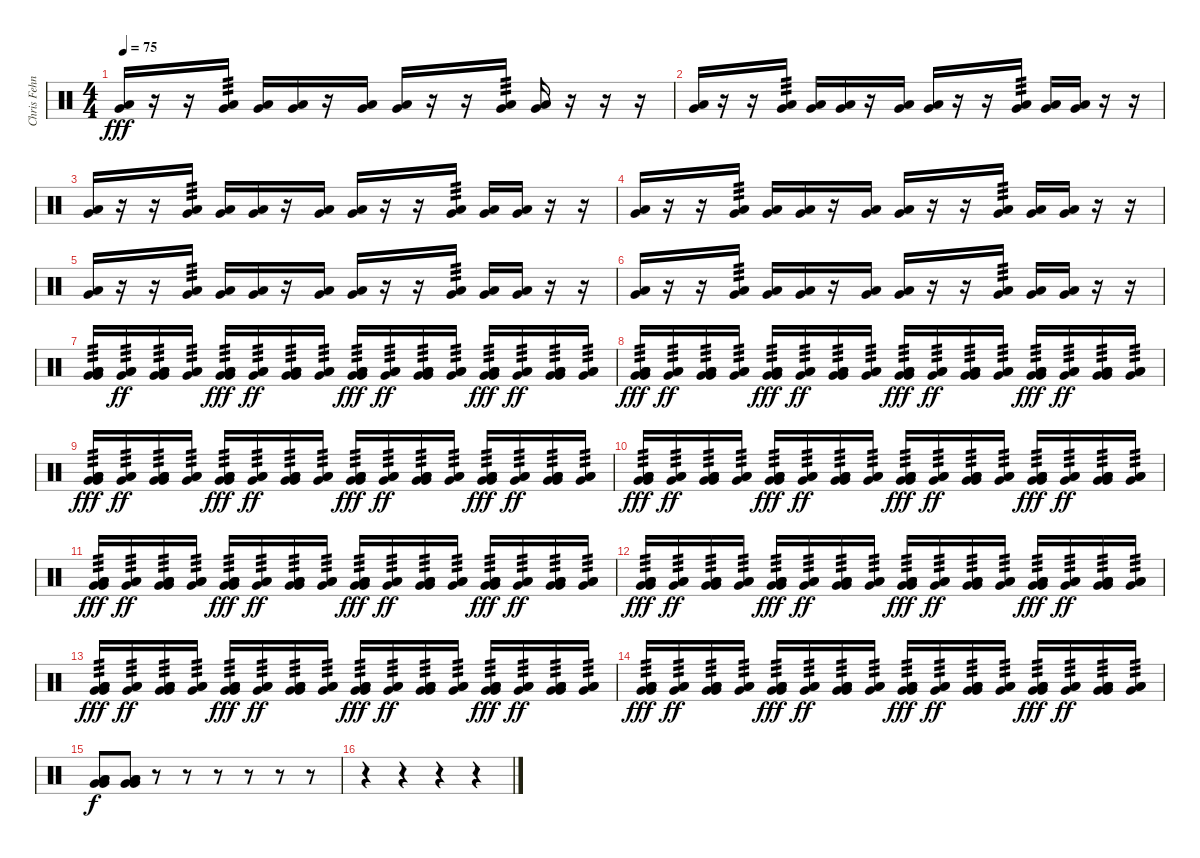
\track ("Chris Fehn" "Chris Fehn") {instrument percussion}
\staff {score}
\articulation defaults
\ts (4 4)
\tempo 75
\clef neutral
\ks c
("Very Low Tom (hit)" "Low Floor Tom (hit)").16{dy fff} r.16 r.16 ("Very Low Tom (hit)" "Low Floor Tom (hit)").16{tp 3} ("Very Low Tom (hit)" "Low Floor Tom (hit)").16 ("Very Low Tom (hit)" "Low Floor Tom (hit)").16 r.16 ("Very Low Tom (hit)" "Low Floor Tom (hit)").16 ("Very Low Tom (hit)" "Low Floor Tom (hit)").16 r.16 r.16 ("Very Low Tom (hit)" "Low Floor Tom (hit)").16{tp 3} ("Very Low Tom (hit)" "Low Floor Tom (hit)").16 r.16 r.16 r.16 |
("Very Low Tom (hit)" "Low Floor Tom (hit)").16 r.16 r.16 ("Very Low Tom (hit)" "Low Floor Tom (hit)").16{tp 3} ("Very Low Tom (hit)" "Low Floor Tom (hit)").16 ("Very Low Tom (hit)" "Low Floor Tom (hit)").16 r.16 ("Very Low Tom (hit)" "Low Floor Tom (hit)").16 ("Very Low Tom (hit)" "Low Floor Tom (hit)").16 r.16 r.16 ("Very Low Tom (hit)" "Low Floor Tom (hit)").16{tp 3} ("Very Low Tom (hit)" "Low Floor Tom (hit)").16 ("Very Low Tom (hit)" "Low Floor Tom (hit)").16 r.16 r.16 |
("Very Low Tom (hit)" "Low Floor Tom (hit)").16 r.16 r.16 ("Very Low Tom (hit)" "Low Floor Tom (hit)").16{tp 3} ("Very Low Tom (hit)" "Low Floor Tom (hit)").16 ("Very Low Tom (hit)" "Low Floor Tom (hit)").16 r.16 ("Very Low Tom (hit)" "Low Floor Tom (hit)").16 ("Very Low Tom (hit)" "Low Floor Tom (hit)").16 r.16 r.16 ("Very Low Tom (hit)" "Low Floor Tom (hit)").16{tp 3} ("Very Low Tom (hit)" "Low Floor Tom (hit)").16 ("Very Low Tom (hit)" "Low Floor Tom (hit)").16 r.16 r.16 |
("Very Low Tom (hit)" "Low Floor Tom (hit)").16 r.16 r.16 ("Very Low Tom (hit)" "Low Floor Tom (hit)").16{tp 3} ("Very Low Tom (hit)" "Low Floor Tom (hit)").16 ("Very Low Tom (hit)" "Low Floor Tom (hit)").16 r.16 ("Very Low Tom (hit)" "Low Floor Tom (hit)").16 ("Very Low Tom (hit)" "Low Floor Tom (hit)").16 r.16 r.16 ("Very Low Tom (hit)" "Low Floor Tom (hit)").16{tp 3} ("Very Low Tom (hit)" "Low Floor Tom (hit)").16 ("Very Low Tom (hit)" "Low Floor Tom (hit)").16 r.16 r.16 |
("Very Low Tom (hit)" "Low Floor Tom (hit)").16 r.16 r.16 ("Very Low Tom (hit)" "Low Floor Tom (hit)").16{tp 3} ("Very Low Tom (hit)" "Low Floor Tom (hit)").16 ("Very Low Tom (hit)" "Low Floor Tom (hit)").16 r.16 ("Very Low Tom (hit)" "Low Floor Tom (hit)").16 ("Very Low Tom (hit)" "Low Floor Tom (hit)").16 r.16 r.16 ("Very Low Tom (hit)" "Low Floor Tom (hit)").16{tp 3} ("Very Low Tom (hit)" "Low Floor Tom (hit)").16 ("Very Low Tom (hit)" "Low Floor Tom (hit)").16 r.16 r.16 |
("Very Low Tom (hit)" "Low Floor Tom (hit)").16 r.16 r.16 ("Very Low Tom (hit)" "Low Floor Tom (hit)").16{tp 3} ("Very Low Tom (hit)" "Low Floor Tom (hit)").16 ("Very Low Tom (hit)" "Low Floor Tom (hit)").16 r.16 ("Very Low Tom (hit)" "Low Floor Tom (hit)").16 ("Very Low Tom (hit)" "Low Floor Tom (hit)").16 r.16 r.16 ("Very Low Tom (hit)" "Low Floor Tom (hit)").16{tp 3} ("Very Low Tom (hit)" "Low Floor Tom (hit)").16 ("Very Low Tom (hit)" "Low Floor Tom (hit)").16 r.16 r.16 |
("Very Low Tom (hit)" "Low Floor Tom (hit)" "Low Floor Tom (hit)" "Very Low Tom (hit)" "Low Floor Tom (hit)").16{tp 3} ("Very Low Tom (hit)" "Low Floor Tom (hit)" "Low Floor Tom (hit)").16{tp 3 dy ff} ("Very Low Tom (hit)" "Low Floor Tom (hit)" "Low Floor Tom (hit)" "Very Low Tom (hit)" "Low Floor Tom (hit)").16{tp 3} ("Very Low Tom (hit)" "Low Floor Tom (hit)" "Low Floor Tom (hit)").16{tp 3} ("Very Low Tom (hit)" "Low Floor Tom (hit)" "Low Floor Tom (hit)" "Very Low Tom (hit)" "Low Floor Tom (hit)").16{tp 3 dy fff} ("Very Low Tom (hit)" "Low Floor Tom (hit)" "Low Floor Tom (hit)").16{tp 3 dy ff} ("Very Low Tom (hit)" "Low Floor Tom (hit)" "Low Floor Tom (hit)" "Very Low Tom (hit)" "Low Floor Tom (hit)").16{tp 3} ("Very Low Tom (hit)" "Low Floor Tom (hit)" "Low Floor Tom (hit)").16{tp 3} ("Very Low Tom (hit)" "Low Floor Tom (hit)" "Low Floor Tom (hit)" "Very Low Tom (hit)" "Low Floor Tom (hit)").16{tp 3 dy fff} ("Very Low Tom (hit)" "Low Floor Tom (hit)" "Low Floor Tom (hit)").16{tp 3 dy ff} ("Very Low Tom (hit)" "Low Floor Tom (hit)" "Low Floor Tom (hit)" "Very Low Tom (hit)" "Low Floor Tom (hit)").16{tp 3} ("Very Low Tom (hit)" "Low Floor Tom (hit)" "Low Floor Tom (hit)").16{tp 3} ("Very Low Tom (hit)" "Low Floor Tom (hit)" "Low Floor Tom (hit)" "Very Low Tom (hit)" "Low Floor Tom (hit)").16{tp 3 dy fff} ("Very Low Tom (hit)" "Low Floor Tom (hit)" "Low Floor Tom (hit)").16{tp 3 dy ff} ("Very Low Tom (hit)" "Low Floor Tom (hit)" "Low Floor Tom (hit)" "Very Low Tom (hit)" "Low Floor Tom (hit)").16{tp 3} ("Very Low Tom (hit)" "Low Floor Tom (hit)" "Low Floor Tom (hit)").16{tp 3} |
("Very Low Tom (hit)" "Low Floor Tom (hit)" "Low Floor Tom (hit)" "Very Low Tom (hit)" "Low Floor Tom (hit)").16{tp 3 dy fff} ("Very Low Tom (hit)" "Low Floor Tom (hit)" "Low Floor Tom (hit)").16{tp 3 dy ff} ("Very Low Tom (hit)" "Low Floor Tom (hit)" "Low Floor Tom (hit)" "Very Low Tom (hit)" "Low Floor Tom (hit)").16{tp 3} ("Very Low Tom (hit)" "Low Floor Tom (hit)" "Low Floor Tom (hit)").16{tp 3} ("Very Low Tom (hit)" "Low Floor Tom (hit)" "Low Floor Tom (hit)" "Very Low Tom (hit)" "Low Floor Tom (hit)").16{tp 3 dy fff} ("Very Low Tom (hit)" "Low Floor Tom (hit)" "Low Floor Tom (hit)").16{tp 3 dy ff} ("Very Low Tom (hit)" "Low Floor Tom (hit)" "Low Floor Tom (hit)" "Very Low Tom (hit)" "Low Floor Tom (hit)").16{tp 3} ("Very Low Tom (hit)" "Low Floor Tom (hit)" "Low Floor Tom (hit)").16{tp 3} ("Very Low Tom (hit)" "Low Floor Tom (hit)" "Low Floor Tom (hit)" "Very Low Tom (hit)" "Low Floor Tom (hit)").16{tp 3 dy fff} ("Very Low Tom (hit)" "Low Floor Tom (hit)" "Low Floor Tom (hit)").16{tp 3 dy ff} ("Very Low Tom (hit)" "Low Floor Tom (hit)" "Low Floor Tom (hit)" "Very Low Tom (hit)" "Low Floor Tom (hit)").16{tp 3} ("Very Low Tom (hit)" "Low Floor Tom (hit)" "Low Floor Tom (hit)").16{tp 3} ("Very Low Tom (hit)" "Low Floor Tom (hit)" "Low Floor Tom (hit)" "Very Low Tom (hit)" "Low Floor Tom (hit)").16{tp 3 dy fff} ("Very Low Tom (hit)" "Low Floor Tom (hit)" "Low Floor Tom (hit)").16{tp 3 dy ff} ("Very Low Tom (hit)" "Low Floor Tom (hit)" "Low Floor Tom (hit)" "Very Low Tom (hit)" "Low Floor Tom (hit)").16{tp 3} ("Very Low Tom (hit)" "Low Floor Tom (hit)" "Low Floor Tom (hit)").16{tp 3} |
("Very Low Tom (hit)" "Low Floor Tom (hit)" "Low Floor Tom (hit)" "Very Low Tom (hit)" "Low Floor Tom (hit)").16{tp 3 dy fff} ("Very Low Tom (hit)" "Low Floor Tom (hit)" "Low Floor Tom (hit)").16{tp 3 dy ff} ("Very Low Tom (hit)" "Low Floor Tom (hit)" "Low Floor Tom (hit)" "Very Low Tom (hit)" "Low Floor Tom (hit)").16{tp 3} ("Very Low Tom (hit)" "Low Floor Tom (hit)" "Low Floor Tom (hit)").16{tp 3} ("Very Low Tom (hit)" "Low Floor Tom (hit)" "Low Floor Tom (hit)" "Very Low Tom (hit)" "Low Floor Tom (hit)").16{tp 3 dy fff} ("Very Low Tom (hit)" "Low Floor Tom (hit)" "Low Floor Tom (hit)").16{tp 3 dy ff} ("Very Low Tom (hit)" "Low Floor Tom (hit)" "Low Floor Tom (hit)" "Very Low Tom (hit)" "Low Floor Tom (hit)").16{tp 3} ("Very Low Tom (hit)" "Low Floor Tom (hit)" "Low Floor Tom (hit)").16{tp 3} ("Very Low Tom (hit)" "Low Floor Tom (hit)" "Low Floor Tom (hit)" "Very Low Tom (hit)" "Low Floor Tom (hit)").16{tp 3 dy fff} ("Very Low Tom (hit)" "Low Floor Tom (hit)" "Low Floor Tom (hit)").16{tp 3 dy ff} ("Very Low Tom (hit)" "Low Floor Tom (hit)" "Low Floor Tom (hit)" "Very Low Tom (hit)" "Low Floor Tom (hit)").16{tp 3} ("Very Low Tom (hit)" "Low Floor Tom (hit)" "Low Floor Tom (hit)").16{tp 3} ("Very Low Tom (hit)" "Low Floor Tom (hit)" "Low Floor Tom (hit)" "Very Low Tom (hit)" "Low Floor Tom (hit)").16{tp 3 dy fff} ("Very Low Tom (hit)" "Low Floor Tom (hit)" "Low Floor Tom (hit)").16{tp 3 dy ff} ("Very Low Tom (hit)" "Low Floor Tom (hit)" "Low Floor Tom (hit)" "Very Low Tom (hit)" "Low Floor Tom (hit)").16{tp 3} ("Very Low Tom (hit)" "Low Floor Tom (hit)" "Low Floor Tom (hit)").16{tp 3} |
("Very Low Tom (hit)" "Low Floor Tom (hit)" "Low Floor Tom (hit)" "Very Low Tom (hit)" "Low Floor Tom (hit)").16{tp 3 dy fff} ("Very Low Tom (hit)" "Low Floor Tom (hit)" "Low Floor Tom (hit)").16{tp 3 dy ff} ("Very Low Tom (hit)" "Low Floor Tom (hit)" "Low Floor Tom (hit)" "Very Low Tom (hit)" "Low Floor Tom (hit)").16{tp 3} ("Very Low Tom (hit)" "Low Floor Tom (hit)" "Low Floor Tom (hit)").16{tp 3} ("Very Low Tom (hit)" "Low Floor Tom (hit)" "Low Floor Tom (hit)" "Very Low Tom (hit)" "Low Floor Tom (hit)").16{tp 3 dy fff} ("Very Low Tom (hit)" "Low Floor Tom (hit)" "Low Floor Tom (hit)").16{tp 3 dy ff} ("Very Low Tom (hit)" "Low Floor Tom (hit)" "Low Floor Tom (hit)" "Very Low Tom (hit)" "Low Floor Tom (hit)").16{tp 3} ("Very Low Tom (hit)" "Low Floor Tom (hit)" "Low Floor Tom (hit)").16{tp 3} ("Very Low Tom (hit)" "Low Floor Tom (hit)" "Low Floor Tom (hit)" "Very Low Tom (hit)" "Low Floor Tom (hit)").16{tp 3 dy fff} ("Very Low Tom (hit)" "Low Floor Tom (hit)" "Low Floor Tom (hit)").16{tp 3 dy ff} ("Very Low Tom (hit)" "Low Floor Tom (hit)" "Low Floor Tom (hit)" "Very Low Tom (hit)" "Low Floor Tom (hit)").16{tp 3} ("Very Low Tom (hit)" "Low Floor Tom (hit)" "Low Floor Tom (hit)").16{tp 3} ("Very Low Tom (hit)" "Low Floor Tom (hit)" "Low Floor Tom (hit)" "Very Low Tom (hit)" "Low Floor Tom (hit)").16{tp 3 dy fff} ("Very Low Tom (hit)" "Low Floor Tom (hit)" "Low Floor Tom (hit)").16{tp 3 dy ff} ("Very Low Tom (hit)" "Low Floor Tom (hit)" "Low Floor Tom (hit)" "Very Low Tom (hit)" "Low Floor Tom (hit)").16{tp 3} ("Very Low Tom (hit)" "Low Floor Tom (hit)" "Low Floor Tom (hit)").16{tp 3} |
("Very Low Tom (hit)" "Low Floor Tom (hit)" "Low Floor Tom (hit)" "Very Low Tom (hit)" "Low Floor Tom (hit)").16{tp 3 dy fff} ("Very Low Tom (hit)" "Low Floor Tom (hit)" "Low Floor Tom (hit)").16{tp 3 dy ff} ("Very Low Tom (hit)" "Low Floor Tom (hit)" "Low Floor Tom (hit)" "Very Low Tom (hit)" "Low Floor Tom (hit)").16{tp 3} ("Very Low Tom (hit)" "Low Floor Tom (hit)" "Low Floor Tom (hit)").16{tp 3} ("Very Low Tom (hit)" "Low Floor Tom (hit)" "Low Floor Tom (hit)" "Very Low Tom (hit)" "Low Floor Tom (hit)").16{tp 3 dy fff} ("Very Low Tom (hit)" "Low Floor Tom (hit)" "Low Floor Tom (hit)").16{tp 3 dy ff} ("Very Low Tom (hit)" "Low Floor Tom (hit)" "Low Floor Tom (hit)" "Very Low Tom (hit)" "Low Floor Tom (hit)").16{tp 3} ("Very Low Tom (hit)" "Low Floor Tom (hit)" "Low Floor Tom (hit)").16{tp 3} ("Very Low Tom (hit)" "Low Floor Tom (hit)" "Low Floor Tom (hit)" "Very Low Tom (hit)" "Low Floor Tom (hit)").16{tp 3 dy fff} ("Very Low Tom (hit)" "Low Floor Tom (hit)" "Low Floor Tom (hit)").16{tp 3 dy ff} ("Very Low Tom (hit)" "Low Floor Tom (hit)" "Low Floor Tom (hit)" "Very Low Tom (hit)" "Low Floor Tom (hit)").16{tp 3} ("Very Low Tom (hit)" "Low Floor Tom (hit)" "Low Floor Tom (hit)").16{tp 3} ("Very Low Tom (hit)" "Low Floor Tom (hit)" "Low Floor Tom (hit)" "Very Low Tom (hit)" "Low Floor Tom (hit)").16{tp 3 dy fff} ("Very Low Tom (hit)" "Low Floor Tom (hit)" "Low Floor Tom (hit)").16{tp 3 dy ff} ("Very Low Tom (hit)" "Low Floor Tom (hit)" "Low Floor Tom (hit)" "Very Low Tom (hit)" "Low Floor Tom (hit)").16{tp 3} ("Very Low Tom (hit)" "Low Floor Tom (hit)" "Low Floor Tom (hit)").16{tp 3} |
("Very Low Tom (hit)" "Low Floor Tom (hit)" "Low Floor Tom (hit)" "Very Low Tom (hit)" "Low Floor Tom (hit)").16{tp 3 dy fff} ("Very Low Tom (hit)" "Low Floor Tom (hit)" "Low Floor Tom (hit)").16{tp 3 dy ff} ("Very Low Tom (hit)" "Low Floor Tom (hit)" "Low Floor Tom (hit)" "Very Low Tom (hit)" "Low Floor Tom (hit)").16{tp 3} ("Very Low Tom (hit)" "Low Floor Tom (hit)" "Low Floor Tom (hit)").16{tp 3} ("Very Low Tom (hit)" "Low Floor Tom (hit)" "Low Floor Tom (hit)" "Very Low Tom (hit)" "Low Floor Tom (hit)").16{tp 3 dy fff} ("Very Low Tom (hit)" "Low Floor Tom (hit)" "Low Floor Tom (hit)").16{tp 3 dy ff} ("Very Low Tom (hit)" "Low Floor Tom (hit)" "Low Floor Tom (hit)" "Very Low Tom (hit)" "Low Floor Tom (hit)").16{tp 3} ("Very Low Tom (hit)" "Low Floor Tom (hit)" "Low Floor Tom (hit)").16{tp 3} ("Very Low Tom (hit)" "Low Floor Tom (hit)" "Low Floor Tom (hit)" "Very Low Tom (hit)" "Low Floor Tom (hit)").16{tp 3 dy fff} ("Very Low Tom (hit)" "Low Floor Tom (hit)" "Low Floor Tom (hit)").16{tp 3 dy ff} ("Very Low Tom (hit)" "Low Floor Tom (hit)" "Low Floor Tom (hit)" "Very Low Tom (hit)" "Low Floor Tom (hit)").16{tp 3} ("Very Low Tom (hit)" "Low Floor Tom (hit)" "Low Floor Tom (hit)").16{tp 3} ("Very Low Tom (hit)" "Low Floor Tom (hit)" "Low Floor Tom (hit)" "Very Low Tom (hit)" "Low Floor Tom (hit)").16{tp 3 dy fff} ("Very Low Tom (hit)" "Low Floor Tom (hit)" "Low Floor Tom (hit)").16{tp 3 dy ff} ("Very Low Tom (hit)" "Low Floor Tom (hit)" "Low Floor Tom (hit)" "Very Low Tom (hit)" "Low Floor Tom (hit)").16{tp 3} ("Very Low Tom (hit)" "Low Floor Tom (hit)" "Low Floor Tom (hit)").16{tp 3} |
("Very Low Tom (hit)" "Low Floor Tom (hit)" "Low Floor Tom (hit)" "Very Low Tom (hit)" "Low Floor Tom (hit)").16{tp 3 dy fff} ("Very Low Tom (hit)" "Low Floor Tom (hit)" "Low Floor Tom (hit)").16{tp 3 dy ff} ("Very Low Tom (hit)" "Low Floor Tom (hit)" "Low Floor Tom (hit)" "Very Low Tom (hit)" "Low Floor Tom (hit)").16{tp 3} ("Very Low Tom (hit)" "Low Floor Tom (hit)" "Low Floor Tom (hit)").16{tp 3} ("Very Low Tom (hit)" "Low Floor Tom (hit)" "Low Floor Tom (hit)" "Very Low Tom (hit)" "Low Floor Tom (hit)").16{tp 3 dy fff} ("Very Low Tom (hit)" "Low Floor Tom (hit)" "Low Floor Tom (hit)").16{tp 3 dy ff} ("Very Low Tom (hit)" "Low Floor Tom (hit)" "Low Floor Tom (hit)" "Very Low Tom (hit)" "Low Floor Tom (hit)").16{tp 3} ("Very Low Tom (hit)" "Low Floor Tom (hit)" "Low Floor Tom (hit)").16{tp 3} ("Very Low Tom (hit)" "Low Floor Tom (hit)" "Low Floor Tom (hit)" "Very Low Tom (hit)" "Low Floor Tom (hit)").16{tp 3 dy fff} ("Very Low Tom (hit)" "Low Floor Tom (hit)" "Low Floor Tom (hit)").16{tp 3 dy ff} ("Very Low Tom (hit)" "Low Floor Tom (hit)" "Low Floor Tom (hit)" "Very Low Tom (hit)" "Low Floor Tom (hit)").16{tp 3} ("Very Low Tom (hit)" "Low Floor Tom (hit)" "Low Floor Tom (hit)").16{tp 3} ("Very Low Tom (hit)" "Low Floor Tom (hit)" "Low Floor Tom (hit)" "Very Low Tom (hit)" "Low Floor Tom (hit)").16{tp 3 dy fff} ("Very Low Tom (hit)" "Low Floor Tom (hit)" "Low Floor Tom (hit)").16{tp 3 dy ff} ("Very Low Tom (hit)" "Low Floor Tom (hit)" "Low Floor Tom (hit)" "Very Low Tom (hit)" "Low Floor Tom (hit)").16{tp 3} ("Very Low Tom (hit)" "Low Floor Tom (hit)" "Low Floor Tom (hit)").16{tp 3} |
("Very Low Tom (hit)" "Low Floor Tom (hit)" "Low Floor Tom (hit)" "Very Low Tom (hit)" "Low Floor Tom (hit)").16{tp 3 dy fff} ("Very Low Tom (hit)" "Low Floor Tom (hit)" "Low Floor Tom (hit)").16{tp 3 dy ff} ("Very Low Tom (hit)" "Low Floor Tom (hit)" "Low Floor Tom (hit)" "Very Low Tom (hit)" "Low Floor Tom (hit)").16{tp 3} ("Very Low Tom (hit)" "Low Floor Tom (hit)" "Low Floor Tom (hit)").16{tp 3} ("Very Low Tom (hit)" "Low Floor Tom (hit)" "Low Floor Tom (hit)" "Very Low Tom (hit)" "Low Floor Tom (hit)").16{tp 3 dy fff} ("Very Low Tom (hit)" "Low Floor Tom (hit)" "Low Floor Tom (hit)").16{tp 3 dy ff} ("Very Low Tom (hit)" "Low Floor Tom (hit)" "Low Floor Tom (hit)" "Very Low Tom (hit)" "Low Floor Tom (hit)").16{tp 3} ("Very Low Tom (hit)" "Low Floor Tom (hit)" "Low Floor Tom (hit)").16{tp 3} ("Very Low Tom (hit)" "Low Floor Tom (hit)" "Low Floor Tom (hit)" "Very Low Tom (hit)" "Low Floor Tom (hit)").16{tp 3 dy fff} ("Very Low Tom (hit)" "Low Floor Tom (hit)" "Low Floor Tom (hit)").16{tp 3 dy ff} ("Very Low Tom (hit)" "Low Floor Tom (hit)" "Low Floor Tom (hit)" "Very Low Tom (hit)" "Low Floor Tom (hit)").16{tp 3} ("Very Low Tom (hit)" "Low Floor Tom (hit)" "Low Floor Tom (hit)").16{tp 3} ("Very Low Tom (hit)" "Low Floor Tom (hit)" "Low Floor Tom (hit)" "Very Low Tom (hit)" "Low Floor Tom (hit)").16{tp 3 dy fff} ("Very Low Tom (hit)" "Low Floor Tom (hit)" "Low Floor Tom (hit)").16{tp 3 dy ff} ("Very Low Tom (hit)" "Low Floor Tom (hit)" "Low Floor Tom (hit)" "Very Low Tom (hit)" "Low Floor Tom (hit)").16{tp 3} ("Very Low Tom (hit)" "Low Floor Tom (hit)" "Low Floor Tom (hit)").16{tp 3} |
("Very Low Tom (hit)" "Very Low Tom (hit)" "Low Floor Tom (hit)" "Low Floor Tom (hit)").8{dy f} ("Very Low Tom (hit)" "Very Low Tom (hit)" "Low Floor Tom (hit)" "Low Floor Tom (hit)").8 r.8 r.8 r.8 r.8 r.8 r.8 |
r.4 r.4 r.4 r.4
